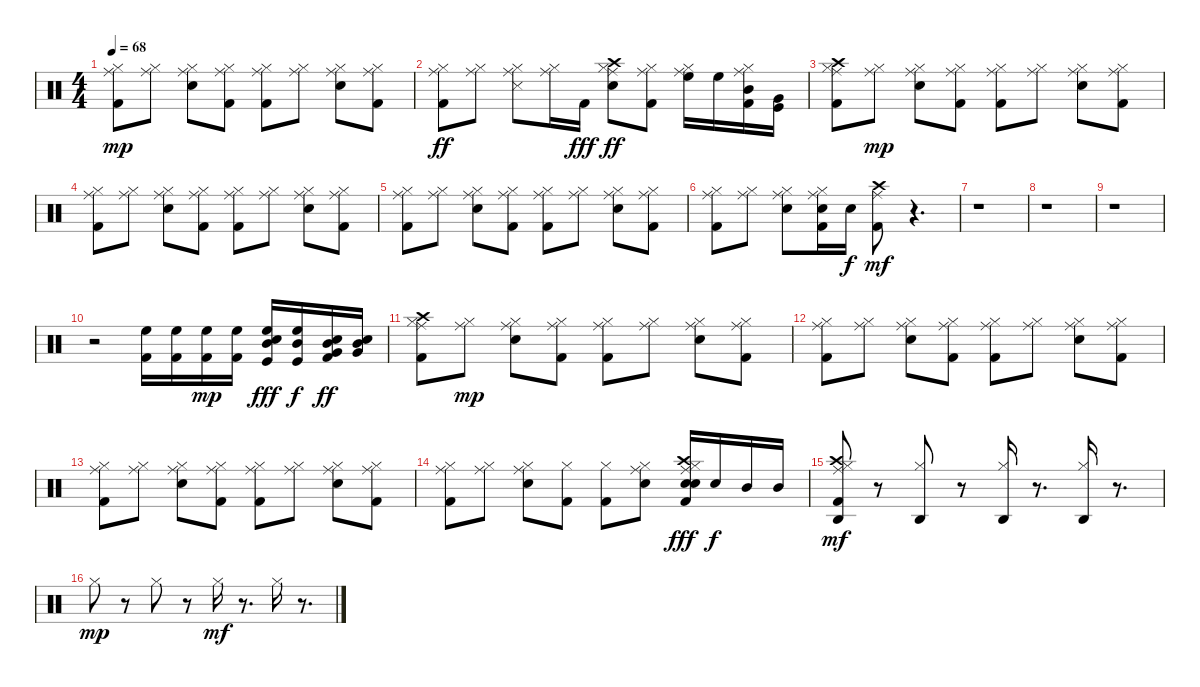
\track "" {instrument percussion}
\staff {score}
\articulation defaults
\ts (4 4)
\tempo 68
\clef neutral
\ks c
("Kick (hit) 2" "Hi-Hat (closed)" "Ride (middle)").8{dy mp} ("Hi-Hat (closed)" "Ride (middle)").8 ("Electric Snare (hit)" "Hi-Hat (closed)" "Ride (middle)").8 ("Kick (hit) 2" "Hi-Hat (closed)" "Ride (middle)").8 ("Kick (hit) 2" "Hi-Hat (closed)" "Ride (middle)").8 ("Hi-Hat (closed)" "Ride (middle)").8 ("Electric Snare (hit)" "Hi-Hat (closed)" "Ride (middle)").8 ("Kick (hit) 2" "Hi-Hat (closed)" "Ride (middle)").8 |
("Kick (hit) 2" "Hi-Hat (closed)" "Ride (middle)").8{dy ff} ("Hi-Hat (closed)" "Ride (middle)").8 ("Snare (side stick) 3" "Hi-Hat (closed)" "Ride (middle)").8 ("Hi-Hat (closed)" "Ride (middle)").16 "Kick (hit) 2".16{dy fff} ("Electric Snare (hit)" "Hi-Hat (closed)" "Crash high (hit)" "Ride (middle)").8{dy ff} ("Kick (hit) 2" "Hi-Hat (closed)" "Ride (middle)").8 ("Hi-Hat (closed)" "High Floor Tom (hit)" "Ride (middle)").16 "High Floor Tom (hit)".16 ("Kick (hit) 2" "Hi-Hat (closed)" "Mid Tom (hit)" "Ride (middle)").16 ("Kick (hit)" "Very Low Tom (hit)").16 |
("Kick (hit) 2" "Hi-Hat (closed)" "Crash high (hit)" "Ride (middle)").8 ("Hi-Hat (closed)" "Ride (middle)").8{dy mp} ("Electric Snare (hit)" "Hi-Hat (closed)" "Ride (middle)").8 ("Kick (hit) 2" "Hi-Hat (closed)" "Ride (middle)").8 ("Kick (hit) 2" "Hi-Hat (closed)" "Ride (middle)").8 ("Hi-Hat (closed)" "Ride (middle)").8 ("Electric Snare (hit)" "Hi-Hat (closed)" "Ride (middle)").8 ("Kick (hit) 2" "Hi-Hat (closed)" "Ride (middle)").8 |
("Kick (hit) 2" "Hi-Hat (closed)" "Ride (middle)").8 ("Hi-Hat (closed)" "Ride (middle)").8 ("Electric Snare (hit)" "Hi-Hat (closed)" "Ride (middle)").8 ("Kick (hit) 2" "Hi-Hat (closed)" "Ride (middle)").8 ("Kick (hit) 2" "Hi-Hat (closed)" "Ride (middle)").8 ("Hi-Hat (closed)" "Ride (middle)").8 ("Electric Snare (hit)" "Hi-Hat (closed)" "Ride (middle)").8 ("Kick (hit) 2" "Hi-Hat (closed)" "Ride (middle)").8 |
("Kick (hit) 2" "Hi-Hat (closed)" "Ride (middle)").8 ("Hi-Hat (closed)" "Ride (middle)").8 ("Electric Snare (hit)" "Hi-Hat (closed)" "Ride (middle)").8 ("Kick (hit) 2" "Hi-Hat (closed)" "Ride (middle)").8 ("Kick (hit) 2" "Hi-Hat (closed)" "Ride (middle)").8 ("Hi-Hat (closed)" "Ride (middle)").8 ("Electric Snare (hit)" "Hi-Hat (closed)" "Ride (middle)").8 ("Kick (hit) 2" "Hi-Hat (closed)" "Ride (middle)").8 |
("Kick (hit) 2" "Hi-Hat (closed)" "Ride (middle)").8 ("Hi-Hat (closed)" "Ride (middle)").8 ("Electric Snare (hit)" "Hi-Hat (closed)" "Ride (middle)").8 ("Kick (hit) 2" "Electric Snare (hit)" "Hi-Hat (closed)" "Ride (middle)").16 "Electric Snare (hit)".16{dy f} ("Kick (hit) 2" "Crash high (hit)" "Ride (middle)").8{dy mf} r.4{d} |
r.1 |
r.1 |
r.1 |
r.2 ("Kick (hit) 2" "High Floor Tom (hit)").16 ("Kick (hit) 2" "High Floor Tom (hit)").16 ("Kick (hit) 2" "High Floor Tom (hit)").16{dy mp} ("Kick (hit) 2" "High Floor Tom (hit)").16 ("Kick (hit)" "Electric Snare (hit)" "Mid Tom (hit)" "High Floor Tom (hit)").16{dy fff} ("Kick (hit)" "Mid Tom (hit)" "High Floor Tom (hit)").16{dy f} ("Kick (hit) 2" "Snare (hit) 2" "Very Low Tom (hit)" "Mid Tom (hit)").16{dy ff} ("Snare (hit) 2" "Very Low Tom (hit)" "Mid Tom (hit)").16 |
("Kick (hit) 2" "Hi-Hat (closed)" "Crash high (hit)" "Ride (middle)").8 ("Hi-Hat (closed)" "Ride (middle)").8{dy mp} ("Electric Snare (hit)" "Hi-Hat (closed)" "Ride (middle)").8 ("Kick (hit) 2" "Hi-Hat (closed)" "Ride (middle)").8 ("Kick (hit) 2" "Hi-Hat (closed)" "Ride (middle)").8 ("Hi-Hat (closed)" "Ride (middle)").8 ("Electric Snare (hit)" "Hi-Hat (closed)" "Ride (middle)").8 ("Kick (hit) 2" "Hi-Hat (closed)" "Ride (middle)").8 |
("Kick (hit) 2" "Hi-Hat (closed)" "Ride (middle)").8 ("Hi-Hat (closed)" "Ride (middle)").8 ("Electric Snare (hit)" "Hi-Hat (closed)" "Ride (middle)").8 ("Kick (hit) 2" "Hi-Hat (closed)" "Ride (middle)").8 ("Kick (hit) 2" "Hi-Hat (closed)" "Ride (middle)").8 ("Hi-Hat (closed)" "Ride (middle)").8 ("Electric Snare (hit)" "Hi-Hat (closed)" "Ride (middle)").8 ("Kick (hit) 2" "Hi-Hat (closed)" "Ride (middle)").8 |
("Kick (hit) 2" "Hi-Hat (closed)" "Ride (middle)").8 ("Hi-Hat (closed)" "Ride (middle)").8 ("Electric Snare (hit)" "Hi-Hat (closed)" "Ride (middle)").8 ("Kick (hit) 2" "Hi-Hat (closed)" "Ride (middle)").8 ("Kick (hit) 2" "Hi-Hat (closed)" "Ride (middle)").8 ("Hi-Hat (closed)" "Ride (middle)").8 ("Electric Snare (hit)" "Hi-Hat (closed)" "Ride (middle)").8 ("Kick (hit) 2" "Hi-Hat (closed)" "Ride (middle)").8 |
("Kick (hit) 2" "Hi-Hat (closed)" "Ride (middle)").8 ("Hi-Hat (closed)" "Ride (middle)").8 ("Electric Snare (hit)" "Hi-Hat (closed)" "Ride (middle)").8 ("Kick (hit) 2" "Hi-Hat (closed)").8 ("Kick (hit) 2" "Hi-Hat (closed)").8 ("Snare (hit) 2" "Hi-Hat (closed)" "Ride (middle)").8 ("Kick (hit) 2" "Snare (hit) 2" "Electric Snare (hit)" "Hi-Hat (closed)" "Crash high (hit)" "Ride (middle)").16{dy fff} "Snare (hit) 2".16{dy f} "Mid Tom (hit)".16 "Mid Tom (hit)".16 |
("Kick (hit) 2" "Hi-Hat (closed)" "Crash high (hit)" "Ride (middle)" "Agogo high (hit)").8{dy mf} r.8 ("Hi-Hat (closed)" "Agogo high (hit)").8 r.8 ("Hi-Hat (closed)" "Agogo high (hit)").16 r.8{d} ("Hi-Hat (closed)" "Agogo high (hit)").16 r.8{d} |
"Hi-Hat (closed)".8{dy mp} r.8 "Hi-Hat (closed)".8 r.8 "Hi-Hat (closed)".16{dy mf} r.8{d} "Hi-Hat (closed)".16 r.8{d}
